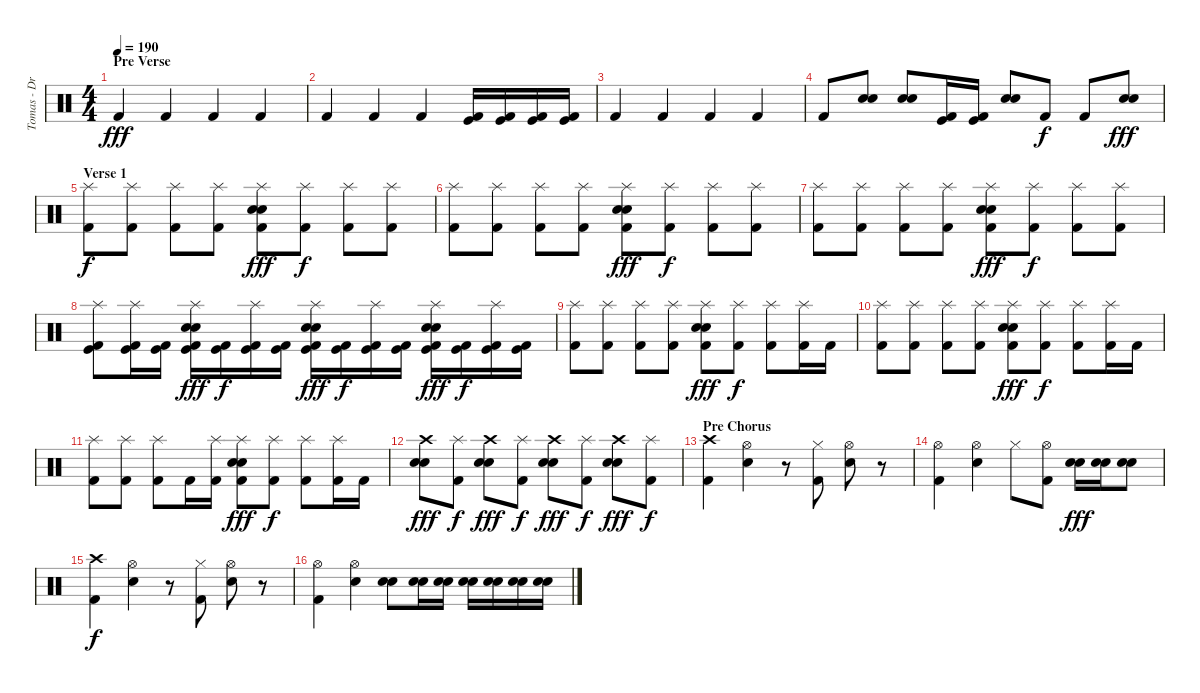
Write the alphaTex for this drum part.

\track ("Tomas - Drums" "Tomas - Dr") {instrument percussion}
\staff {score}
\articulation defaults
\ts (4 4)
\section ("" "Pre Verse")
\tempo 190
\clef neutral
\ks c "Kick (hit) 2".4{dy fff} "Kick (hit) 2".4 "Kick (hit) 2".4 "Kick (hit) 2".4
|
"Kick (hit) 2".4 "Kick (hit) 2".4 "Kick (hit) 2".4 ("Kick (hit)" "Kick (hit) 2").16 ("Kick (hit)" "Kick (hit) 2").16 ("Kick (hit)" "Kick (hit) 2").16 ("Kick (hit)" "Kick (hit) 2").16 |
"Kick (hit) 2".4 "Kick (hit) 2".4 "Kick (hit) 2".4 "Kick (hit) 2".4 |
"Kick (hit) 2".8 ("Electric Snare (hit)" "Electric Snare (hit)").8 ("Electric Snare (hit)" "Electric Snare (hit)").8 ("Kick (hit)" "Kick (hit) 2").16 ("Kick (hit)" "Kick (hit) 2").16 ("Electric Snare (hit)" "Electric Snare (hit)").8 "Kick (hit) 2".8{dy f} "Kick (hit) 2".8 ("Electric Snare (hit)" "Electric Snare (hit)").8{dy fff} |
\section ("" "Verse 1")
("Splash (hit)" "Kick (hit) 2").8{dy f} ("Splash (hit)" "Kick (hit) 2").8 ("Splash (hit)" "Kick (hit) 2").8 ("Splash (hit)" "Kick (hit) 2").8 ("Splash (hit)" "Electric Snare (hit)" "Electric Snare (hit)" "Kick (hit) 2").8{dy fff} ("Splash (hit)" "Kick (hit) 2").8{dy f} ("Splash (hit)" "Kick (hit) 2").8 ("Splash (hit)" "Kick (hit) 2").8 |
("Splash (hit)" "Kick (hit) 2").8 ("Splash (hit)" "Kick (hit) 2").8 ("Splash (hit)" "Kick (hit) 2").8 ("Splash (hit)" "Kick (hit) 2").8 ("Splash (hit)" "Electric Snare (hit)" "Electric Snare (hit)" "Kick (hit) 2").8{dy fff} ("Splash (hit)" "Kick (hit) 2").8{dy f} ("Splash (hit)" "Kick (hit) 2").8 ("Splash (hit)" "Kick (hit) 2").8 |
("Splash (hit)" "Kick (hit) 2").8 ("Splash (hit)" "Kick (hit) 2").8 ("Splash (hit)" "Kick (hit) 2").8 ("Splash (hit)" "Kick (hit) 2").8 ("Splash (hit)" "Electric Snare (hit)" "Electric Snare (hit)" "Kick (hit) 2").8{dy fff} ("Splash (hit)" "Kick (hit) 2").8{dy f} ("Splash (hit)" "Kick (hit) 2").8 ("Splash (hit)" "Kick (hit) 2").8 |
("Splash (hit)" "Kick (hit)" "Kick (hit) 2").8 ("Splash (hit)" "Kick (hit)" "Kick (hit) 2").16 ("Kick (hit)" "Kick (hit) 2").16 ("Splash (hit)" "Electric Snare (hit)" "Electric Snare (hit)" "Kick (hit)" "Kick (hit) 2").16{dy fff} ("Kick (hit)" "Kick (hit) 2").16{dy f} ("Splash (hit)" "Kick (hit)" "Kick (hit) 2").16 ("Kick (hit)" "Kick (hit) 2").16 ("Splash (hit)" "Electric Snare (hit)" "Electric Snare (hit)" "Kick (hit)" "Kick (hit) 2").16{dy fff} ("Kick (hit)" "Kick (hit) 2").16{dy f} ("Splash (hit)" "Kick (hit)" "Kick (hit) 2").16 ("Kick (hit)" "Kick (hit) 2").16 ("Splash (hit)" "Electric Snare (hit)" "Electric Snare (hit)" "Kick (hit)" "Kick (hit) 2").16{dy fff} ("Kick (hit)" "Kick (hit) 2").16{dy f} ("Splash (hit)" "Kick (hit)" "Kick (hit) 2").16 ("Kick (hit)" "Kick (hit) 2").16 |
("Splash (hit)" "Kick (hit) 2").8 ("Splash (hit)" "Kick (hit) 2").8 ("Splash (hit)" "Kick (hit) 2").8 ("Splash (hit)" "Kick (hit) 2").8 ("Splash (hit)" "Electric Snare (hit)" "Electric Snare (hit)" "Kick (hit) 2").8{dy fff} ("Splash (hit)" "Kick (hit) 2").8{dy f} ("Splash (hit)" "Kick (hit) 2").8 ("Splash (hit)" "Kick (hit) 2").16 "Kick (hit) 2".16 |
("Splash (hit)" "Kick (hit) 2").8 ("Splash (hit)" "Kick (hit) 2").8 ("Splash (hit)" "Kick (hit) 2").8 ("Splash (hit)" "Kick (hit) 2").8 ("Splash (hit)" "Electric Snare (hit)" "Electric Snare (hit)" "Kick (hit) 2").8{dy fff} ("Splash (hit)" "Kick (hit) 2").8{dy f} ("Splash (hit)" "Kick (hit) 2").8 ("Splash (hit)" "Kick (hit) 2").16 "Kick (hit) 2".16 |
("Splash (hit)" "Kick (hit) 2").8 ("Splash (hit)" "Kick (hit) 2").8 ("Splash (hit)" "Kick (hit) 2").8 "Kick (hit) 2".16 ("Splash (hit)" "Kick (hit) 2").16 ("Splash (hit)" "Electric Snare (hit)" "Electric Snare (hit)" "Kick (hit) 2").8{dy fff} ("Splash (hit)" "Kick (hit) 2").8{dy f} ("Splash (hit)" "Kick (hit) 2").8 ("Splash (hit)" "Kick (hit) 2").16 "Kick (hit) 2".16 |
("Crash high (hit)" "Electric Snare (hit)" "Electric Snare (hit)").8{dy fff} ("Splash (hit)" "Kick (hit) 2").8{dy f} ("Crash high (hit)" "Electric Snare (hit)" "Electric Snare (hit)").8{dy fff} ("Splash (hit)" "Kick (hit) 2").8{dy f} ("Crash high (hit)" "Electric Snare (hit)" "Electric Snare (hit)").8{dy fff} ("Splash (hit)" "Kick (hit) 2").8{dy f} ("Crash high (hit)" "Electric Snare (hit)" "Electric Snare (hit)").8{dy fff} ("Splash (hit)" "Kick (hit) 2").8{dy f} |
\section ("" "Pre Chorus")
("Crash high (hit)" "Kick (hit) 2").4 ("Hi-Hat (open)" "Electric Snare (hit)").4 r.8 ("Hi-Hat (closed)" "Kick (hit) 2").8 ("Hi-Hat (open)" "Electric Snare (hit)").8 r.8 |
("Hi-Hat (open)" "Kick (hit) 2").4 ("Hi-Hat (open)" "Electric Snare (hit)").4 "Hi-Hat (closed)".8 ("Hi-Hat (open)" "Kick (hit) 2").8 ("Electric Snare (hit)" "Electric Snare (hit)").16{dy fff} ("Electric Snare (hit)" "Electric Snare (hit)").16 ("Electric Snare (hit)" "Electric Snare (hit)").8 |
("Crash high (hit)" "Kick (hit) 2").4{dy f} ("Hi-Hat (open)" "Electric Snare (hit)").4 r.8 ("Hi-Hat (closed)" "Kick (hit) 2").8 ("Hi-Hat (open)" "Electric Snare (hit)").8 r.8 |
("Hi-Hat (open)" "Kick (hit) 2").4 ("Hi-Hat (open)" "Electric Snare (hit)").4 ("Electric Snare (hit)" "Electric Snare (hit)").8 ("Electric Snare (hit)" "Electric Snare (hit)").16 ("Electric Snare (hit)" "Electric Snare (hit)").16 ("Electric Snare (hit)" "Electric Snare (hit)").16 ("Electric Snare (hit)" "Electric Snare (hit)").16 ("Electric Snare (hit)" "Electric Snare (hit)").16 ("Electric Snare (hit)" "Electric Snare (hit)").16
